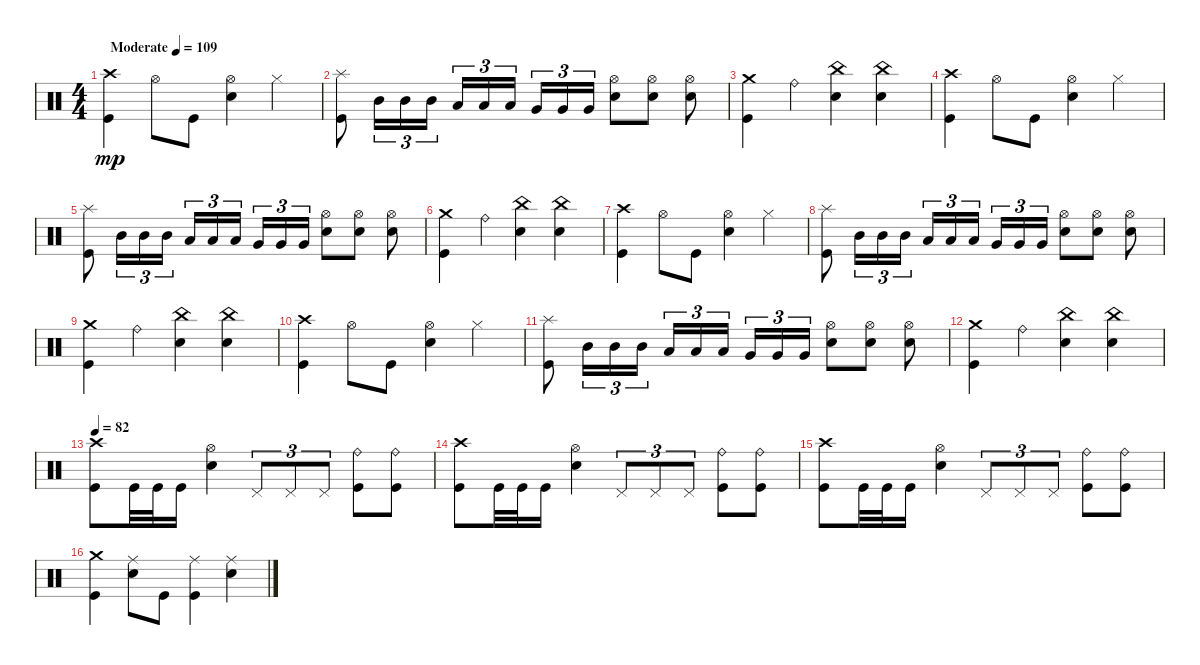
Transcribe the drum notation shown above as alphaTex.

\track "" {instrument percussion}
\staff {score}
\articulation defaults
\ts (4 4)
\tempo (109 "Moderate")
\clef neutral
\ks c
("Crash high (hit)" "Kick (hit)").4{dy mp} "Hi-Hat (open)".8 "Kick (hit)".8 ("Snare (hit) 2" "Hi-Hat (open)").4 "Hi-Hat (closed)".4 |
("Splash (hit)" "Kick (hit)").8 "Mid Tom (hit)".16{tu (3 2)} "Mid Tom (hit)".16{tu (3 2)} "Mid Tom (hit)".16{tu (3 2)} "Low Tom (hit)".16{tu (3 2)} "Low Tom (hit)".16{tu (3 2)} "Low Tom (hit)".16{tu (3 2)} "Very Low Tom (hit)".16{tu (3 2)} "Very Low Tom (hit)".16{tu (3 2)} "Very Low Tom (hit)".16{tu (3 2)} ("Snare (hit) 2" "Hi-Hat (open)").8 ("Snare (hit) 2" "Hi-Hat (open)").8 ("Snare (hit) 2" "Hi-Hat (open)").8 |
("Kick (hit)" "Crash medium (hit)").4 "Ride (bell)".4 ("Snare (hit) 2" "China (hit)").4 ("Snare (hit) 2" "China (hit)").4 |
("Crash high (hit)" "Kick (hit)").4 "Hi-Hat (open)".8 "Kick (hit)".8 ("Snare (hit) 2" "Hi-Hat (open)").4 "Hi-Hat (closed)".4 |
("Splash (hit)" "Kick (hit)").8 "Mid Tom (hit)".16{tu (3 2)} "Mid Tom (hit)".16{tu (3 2)} "Mid Tom (hit)".16{tu (3 2)} "Low Tom (hit)".16{tu (3 2)} "Low Tom (hit)".16{tu (3 2)} "Low Tom (hit)".16{tu (3 2)} "Very Low Tom (hit)".16{tu (3 2)} "Very Low Tom (hit)".16{tu (3 2)} "Very Low Tom (hit)".16{tu (3 2)} ("Snare (hit) 2" "Hi-Hat (open)").8 ("Snare (hit) 2" "Hi-Hat (open)").8 ("Snare (hit) 2" "Hi-Hat (open)").8 |
("Kick (hit)" "Crash medium (hit)").4 "Ride (bell)".4 ("Snare (hit) 2" "China (hit)").4 ("Snare (hit) 2" "China (hit)").4 |
("Crash high (hit)" "Kick (hit)").4 "Hi-Hat (open)".8 "Kick (hit)".8 ("Snare (hit) 2" "Hi-Hat (open)").4 "Hi-Hat (closed)".4 |
("Splash (hit)" "Kick (hit)").8 "Mid Tom (hit)".16{tu (3 2)} "Mid Tom (hit)".16{tu (3 2)} "Mid Tom (hit)".16{tu (3 2)} "Low Tom (hit)".16{tu (3 2)} "Low Tom (hit)".16{tu (3 2)} "Low Tom (hit)".16{tu (3 2)} "Very Low Tom (hit)".16{tu (3 2)} "Very Low Tom (hit)".16{tu (3 2)} "Very Low Tom (hit)".16{tu (3 2)} ("Snare (hit) 2" "Hi-Hat (open)").8 ("Snare (hit) 2" "Hi-Hat (open)").8 ("Snare (hit) 2" "Hi-Hat (open)").8 |
("Kick (hit)" "Crash medium (hit)").4 "Ride (bell)".4 ("Snare (hit) 2" "China (hit)").4 ("Snare (hit) 2" "China (hit)").4 |
("Crash high (hit)" "Kick (hit)").4 "Hi-Hat (open)".8 "Kick (hit)".8 ("Snare (hit) 2" "Hi-Hat (open)").4 "Hi-Hat (closed)".4 |
("Splash (hit)" "Kick (hit)").8 "Mid Tom (hit)".16{tu (3 2)} "Mid Tom (hit)".16{tu (3 2)} "Mid Tom (hit)".16{tu (3 2)} "Low Tom (hit)".16{tu (3 2)} "Low Tom (hit)".16{tu (3 2)} "Low Tom (hit)".16{tu (3 2)} "Very Low Tom (hit)".16{tu (3 2)} "Very Low Tom (hit)".16{tu (3 2)} "Very Low Tom (hit)".16{tu (3 2)} ("Snare (hit) 2" "Hi-Hat (open)").8 ("Snare (hit) 2" "Hi-Hat (open)").8 ("Snare (hit) 2" "Hi-Hat (open)").8 |
("Kick (hit)" "Crash medium (hit)").4 "Ride (bell)".4 ("Snare (hit) 2" "China (hit)").4 ("Snare (hit) 2" "China (hit)").4 |
\tempo 82
("Kick (hit)" "Crash high (hit)").8 "Kick (hit)".32 "Kick (hit)".32 "Kick (hit)".16 ("Snare (hit) 2" "Hi-Hat (open)").4 "Pedal Hi-Hat (hit)".8{tu (3 2)} "Pedal Hi-Hat (hit)".8{tu (3 2)} "Pedal Hi-Hat (hit)".8{tu (3 2)} ("Ride (bell)" "Kick (hit)").8 ("Kick (hit)" "Ride (bell)").8 |
("Kick (hit)" "Crash high (hit)").8 "Kick (hit)".32 "Kick (hit)".32 "Kick (hit)".16 ("Snare (hit) 2" "Hi-Hat (open)").4 "Pedal Hi-Hat (hit)".8{tu (3 2)} "Pedal Hi-Hat (hit)".8{tu (3 2)} "Pedal Hi-Hat (hit)".8{tu (3 2)} ("Ride (bell)" "Kick (hit)").8 ("Kick (hit)" "Ride (bell)").8 |
("Kick (hit)" "Crash high (hit)").8 "Kick (hit)".32 "Kick (hit)".32 "Kick (hit)".16 ("Snare (hit) 2" "Hi-Hat (open)").4 "Pedal Hi-Hat (hit)".8{tu (3 2)} "Pedal Hi-Hat (hit)".8{tu (3 2)} "Pedal Hi-Hat (hit)".8{tu (3 2)} ("Ride (bell)" "Kick (hit)").8 ("Kick (hit)" "Ride (bell)").8 |
("Crash medium (hit)" "Kick (hit)").4 ("Snare (hit) 2" "Ride (middle)").8 "Kick (hit)".8 ("Kick (hit)" "Ride (middle)").4 ("Snare (hit) 2" "Ride (middle)").4
